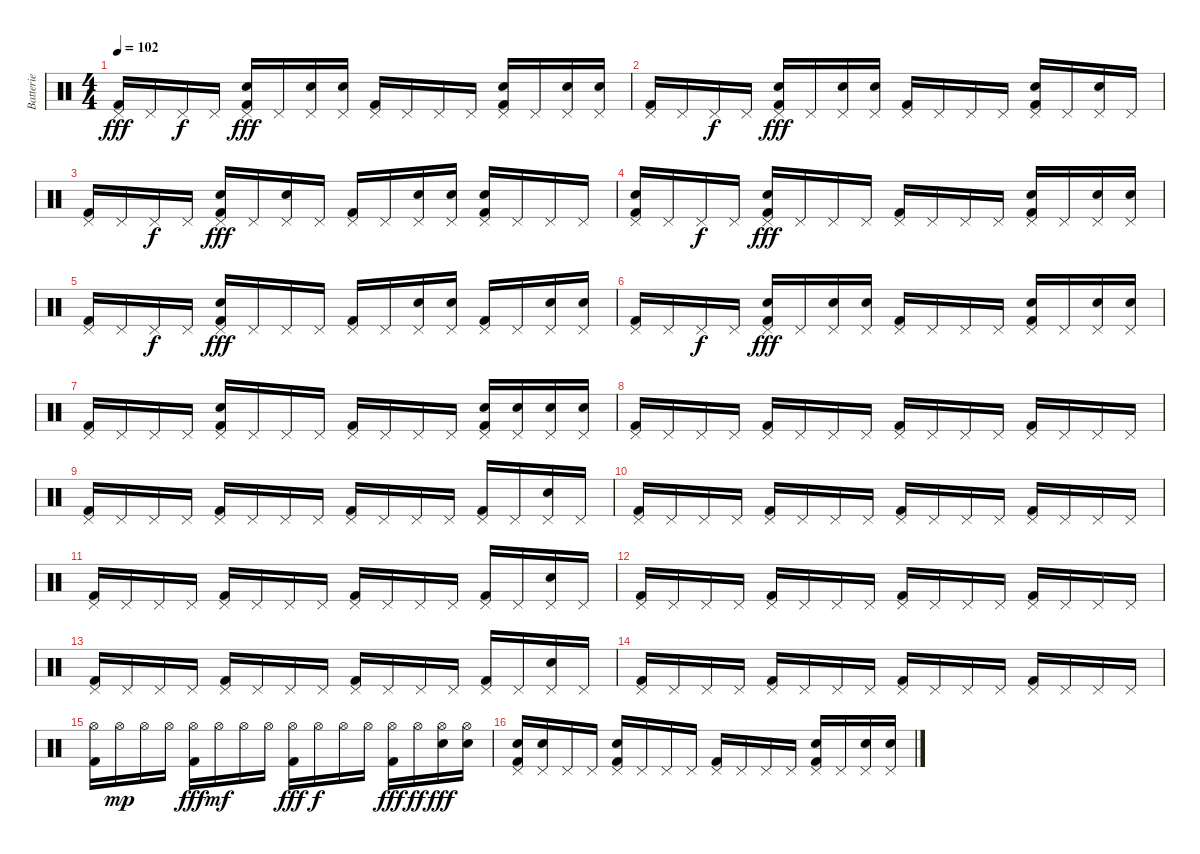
\track ("Batterie" "Batterie") {instrument percussion}
\staff {score}
\articulation defaults
\ts (4 4)
\tempo 102
\clef neutral
\ks c
("Pedal Hi-Hat (hit)" "Kick (hit) 2").16{dy fff} "Pedal Hi-Hat (hit)".16 "Pedal Hi-Hat (hit)".16{dy f} "Pedal Hi-Hat (hit)".16 ("Pedal Hi-Hat (hit)" "Electric Snare (hit)" "Kick (hit) 2").16{dy fff} "Pedal Hi-Hat (hit)".16 ("Pedal Hi-Hat (hit)" "Electric Snare (hit)").16 ("Pedal Hi-Hat (hit)" "Electric Snare (hit)").16 ("Pedal Hi-Hat (hit)" "Kick (hit) 2").16 "Pedal Hi-Hat (hit)".16 "Pedal Hi-Hat (hit)".16 "Pedal Hi-Hat (hit)".16 ("Pedal Hi-Hat (hit)" "Electric Snare (hit)" "Kick (hit) 2").16 "Pedal Hi-Hat (hit)".16 ("Pedal Hi-Hat (hit)" "Electric Snare (hit)").16 ("Pedal Hi-Hat (hit)" "Electric Snare (hit)").16 |
("Pedal Hi-Hat (hit)" "Kick (hit) 2").16 "Pedal Hi-Hat (hit)".16 "Pedal Hi-Hat (hit)".16{dy f} "Pedal Hi-Hat (hit)".16 ("Pedal Hi-Hat (hit)" "Electric Snare (hit)" "Kick (hit) 2").16{dy fff} "Pedal Hi-Hat (hit)".16 ("Pedal Hi-Hat (hit)" "Electric Snare (hit)").16 ("Pedal Hi-Hat (hit)" "Electric Snare (hit)").16 ("Pedal Hi-Hat (hit)" "Kick (hit) 2").16 "Pedal Hi-Hat (hit)".16 "Pedal Hi-Hat (hit)".16 "Pedal Hi-Hat (hit)".16 ("Pedal Hi-Hat (hit)" "Electric Snare (hit)" "Kick (hit) 2").16 "Pedal Hi-Hat (hit)".16 ("Pedal Hi-Hat (hit)" "Electric Snare (hit)").16 "Pedal Hi-Hat (hit)".16 |
("Pedal Hi-Hat (hit)" "Kick (hit) 2").16 "Pedal Hi-Hat (hit)".16 "Pedal Hi-Hat (hit)".16{dy f} "Pedal Hi-Hat (hit)".16 ("Pedal Hi-Hat (hit)" "Electric Snare (hit)" "Kick (hit) 2").16{dy fff} "Pedal Hi-Hat (hit)".16 ("Pedal Hi-Hat (hit)" "Electric Snare (hit)").16 "Pedal Hi-Hat (hit)".16 ("Pedal Hi-Hat (hit)" "Kick (hit) 2").16 "Pedal Hi-Hat (hit)".16 ("Pedal Hi-Hat (hit)" "Electric Snare (hit)").16 ("Pedal Hi-Hat (hit)" "Electric Snare (hit)").16 ("Pedal Hi-Hat (hit)" "Electric Snare (hit)" "Kick (hit) 2").16 "Pedal Hi-Hat (hit)".16 "Pedal Hi-Hat (hit)".16 "Pedal Hi-Hat (hit)".16 |
("Pedal Hi-Hat (hit)" "Electric Snare (hit)" "Kick (hit) 2").16 "Pedal Hi-Hat (hit)".16 "Pedal Hi-Hat (hit)".16{dy f} "Pedal Hi-Hat (hit)".16 ("Pedal Hi-Hat (hit)" "Electric Snare (hit)" "Kick (hit) 2").16{dy fff} "Pedal Hi-Hat (hit)".16 "Pedal Hi-Hat (hit)".16 "Pedal Hi-Hat (hit)".16 ("Pedal Hi-Hat (hit)" "Kick (hit) 2").16 "Pedal Hi-Hat (hit)".16 "Pedal Hi-Hat (hit)".16 "Pedal Hi-Hat (hit)".16 ("Pedal Hi-Hat (hit)" "Electric Snare (hit)" "Kick (hit) 2").16 "Pedal Hi-Hat (hit)".16 ("Pedal Hi-Hat (hit)" "Electric Snare (hit)").16 ("Pedal Hi-Hat (hit)" "Electric Snare (hit)").16 |
("Pedal Hi-Hat (hit)" "Kick (hit) 2").16 "Pedal Hi-Hat (hit)".16 "Pedal Hi-Hat (hit)".16{dy f} "Pedal Hi-Hat (hit)".16 ("Pedal Hi-Hat (hit)" "Electric Snare (hit)" "Kick (hit) 2").16{dy fff} "Pedal Hi-Hat (hit)".16 "Pedal Hi-Hat (hit)".16 "Pedal Hi-Hat (hit)".16 ("Pedal Hi-Hat (hit)" "Kick (hit) 2").16 "Pedal Hi-Hat (hit)".16 ("Pedal Hi-Hat (hit)" "Electric Snare (hit)").16 ("Pedal Hi-Hat (hit)" "Electric Snare (hit)").16 ("Pedal Hi-Hat (hit)" "Kick (hit) 2").16 "Pedal Hi-Hat (hit)".16 ("Pedal Hi-Hat (hit)" "Electric Snare (hit)").16 ("Pedal Hi-Hat (hit)" "Electric Snare (hit)").16 |
("Pedal Hi-Hat (hit)" "Kick (hit) 2").16 "Pedal Hi-Hat (hit)".16 "Pedal Hi-Hat (hit)".16{dy f} "Pedal Hi-Hat (hit)".16 ("Pedal Hi-Hat (hit)" "Electric Snare (hit)" "Kick (hit) 2").16{dy fff} "Pedal Hi-Hat (hit)".16 ("Pedal Hi-Hat (hit)" "Electric Snare (hit)").16 ("Pedal Hi-Hat (hit)" "Electric Snare (hit)").16 ("Pedal Hi-Hat (hit)" "Kick (hit) 2").16 "Pedal Hi-Hat (hit)".16 "Pedal Hi-Hat (hit)".16 "Pedal Hi-Hat (hit)".16 ("Pedal Hi-Hat (hit)" "Electric Snare (hit)" "Kick (hit) 2").16 "Pedal Hi-Hat (hit)".16 ("Pedal Hi-Hat (hit)" "Electric Snare (hit)").16 ("Pedal Hi-Hat (hit)" "Electric Snare (hit)").16 |
("Pedal Hi-Hat (hit)" "Kick (hit) 2").16 "Pedal Hi-Hat (hit)".16 "Pedal Hi-Hat (hit)".16 "Pedal Hi-Hat (hit)".16 ("Pedal Hi-Hat (hit)" "Electric Snare (hit)" "Kick (hit) 2").16 "Pedal Hi-Hat (hit)".16 "Pedal Hi-Hat (hit)".16 "Pedal Hi-Hat (hit)".16 ("Pedal Hi-Hat (hit)" "Kick (hit) 2").16 "Pedal Hi-Hat (hit)".16 "Pedal Hi-Hat (hit)".16 "Pedal Hi-Hat (hit)".16 ("Pedal Hi-Hat (hit)" "Electric Snare (hit)" "Kick (hit) 2").16 ("Pedal Hi-Hat (hit)" "Electric Snare (hit)").16 ("Pedal Hi-Hat (hit)" "Electric Snare (hit)").16 ("Pedal Hi-Hat (hit)" "Electric Snare (hit)").16 |
("Pedal Hi-Hat (hit)" "Kick (hit) 2").16 "Pedal Hi-Hat (hit)".16 "Pedal Hi-Hat (hit)".16 "Pedal Hi-Hat (hit)".16 ("Pedal Hi-Hat (hit)" "Kick (hit) 2").16 "Pedal Hi-Hat (hit)".16 "Pedal Hi-Hat (hit)".16 "Pedal Hi-Hat (hit)".16 ("Pedal Hi-Hat (hit)" "Kick (hit) 2").16 "Pedal Hi-Hat (hit)".16 "Pedal Hi-Hat (hit)".16 "Pedal Hi-Hat (hit)".16 ("Pedal Hi-Hat (hit)" "Kick (hit) 2").16 "Pedal Hi-Hat (hit)".16 "Pedal Hi-Hat (hit)".16 "Pedal Hi-Hat (hit)".16 |
("Pedal Hi-Hat (hit)" "Kick (hit) 2").16 "Pedal Hi-Hat (hit)".16 "Pedal Hi-Hat (hit)".16 "Pedal Hi-Hat (hit)".16 ("Pedal Hi-Hat (hit)" "Kick (hit) 2").16 "Pedal Hi-Hat (hit)".16 "Pedal Hi-Hat (hit)".16 "Pedal Hi-Hat (hit)".16 ("Pedal Hi-Hat (hit)" "Kick (hit) 2").16 "Pedal Hi-Hat (hit)".16 "Pedal Hi-Hat (hit)".16 "Pedal Hi-Hat (hit)".16 ("Pedal Hi-Hat (hit)" "Kick (hit) 2").16 "Pedal Hi-Hat (hit)".16 ("Pedal Hi-Hat (hit)" "Electric Snare (hit)").16 "Pedal Hi-Hat (hit)".16 |
("Pedal Hi-Hat (hit)" "Kick (hit) 2").16 "Pedal Hi-Hat (hit)".16 "Pedal Hi-Hat (hit)".16 "Pedal Hi-Hat (hit)".16 ("Pedal Hi-Hat (hit)" "Kick (hit) 2").16 "Pedal Hi-Hat (hit)".16 "Pedal Hi-Hat (hit)".16 "Pedal Hi-Hat (hit)".16 ("Pedal Hi-Hat (hit)" "Kick (hit) 2").16 "Pedal Hi-Hat (hit)".16 "Pedal Hi-Hat (hit)".16 "Pedal Hi-Hat (hit)".16 ("Pedal Hi-Hat (hit)" "Kick (hit) 2").16 "Pedal Hi-Hat (hit)".16 "Pedal Hi-Hat (hit)".16 "Pedal Hi-Hat (hit)".16 |
("Pedal Hi-Hat (hit)" "Kick (hit) 2").16 "Pedal Hi-Hat (hit)".16 "Pedal Hi-Hat (hit)".16 "Pedal Hi-Hat (hit)".16 ("Pedal Hi-Hat (hit)" "Kick (hit) 2").16 "Pedal Hi-Hat (hit)".16 "Pedal Hi-Hat (hit)".16 "Pedal Hi-Hat (hit)".16 ("Pedal Hi-Hat (hit)" "Kick (hit) 2").16 "Pedal Hi-Hat (hit)".16 "Pedal Hi-Hat (hit)".16 "Pedal Hi-Hat (hit)".16 ("Pedal Hi-Hat (hit)" "Kick (hit) 2").16 "Pedal Hi-Hat (hit)".16 ("Pedal Hi-Hat (hit)" "Electric Snare (hit)").16 "Pedal Hi-Hat (hit)".16 |
("Pedal Hi-Hat (hit)" "Kick (hit) 2").16 "Pedal Hi-Hat (hit)".16 "Pedal Hi-Hat (hit)".16 "Pedal Hi-Hat (hit)".16 ("Pedal Hi-Hat (hit)" "Kick (hit) 2").16 "Pedal Hi-Hat (hit)".16 "Pedal Hi-Hat (hit)".16 "Pedal Hi-Hat (hit)".16 ("Pedal Hi-Hat (hit)" "Kick (hit) 2").16 "Pedal Hi-Hat (hit)".16 "Pedal Hi-Hat (hit)".16 "Pedal Hi-Hat (hit)".16 ("Pedal Hi-Hat (hit)" "Kick (hit) 2").16 "Pedal Hi-Hat (hit)".16 "Pedal Hi-Hat (hit)".16 "Pedal Hi-Hat (hit)".16 |
("Pedal Hi-Hat (hit)" "Kick (hit) 2").16 "Pedal Hi-Hat (hit)".16 "Pedal Hi-Hat (hit)".16 "Pedal Hi-Hat (hit)".16 ("Pedal Hi-Hat (hit)" "Kick (hit) 2").16 "Pedal Hi-Hat (hit)".16 "Pedal Hi-Hat (hit)".16 "Pedal Hi-Hat (hit)".16 ("Pedal Hi-Hat (hit)" "Kick (hit) 2").16 "Pedal Hi-Hat (hit)".16 "Pedal Hi-Hat (hit)".16 "Pedal Hi-Hat (hit)".16 ("Pedal Hi-Hat (hit)" "Kick (hit) 2").16 "Pedal Hi-Hat (hit)".16 ("Pedal Hi-Hat (hit)" "Electric Snare (hit)").16 "Pedal Hi-Hat (hit)".16 |
("Pedal Hi-Hat (hit)" "Kick (hit) 2").16 "Pedal Hi-Hat (hit)".16 "Pedal Hi-Hat (hit)".16 "Pedal Hi-Hat (hit)".16 ("Pedal Hi-Hat (hit)" "Kick (hit) 2").16 "Pedal Hi-Hat (hit)".16 "Pedal Hi-Hat (hit)".16 "Pedal Hi-Hat (hit)".16 ("Pedal Hi-Hat (hit)" "Kick (hit) 2").16 "Pedal Hi-Hat (hit)".16 "Pedal Hi-Hat (hit)".16 "Pedal Hi-Hat (hit)".16 ("Pedal Hi-Hat (hit)" "Kick (hit) 2").16 "Pedal Hi-Hat (hit)".16 "Pedal Hi-Hat (hit)".16 "Pedal Hi-Hat (hit)".16 |
("Hi-Hat (open)" "Kick (hit) 2").16 "Hi-Hat (open)".16{dy mp} "Hi-Hat (open)".16 "Hi-Hat (open)".16 ("Hi-Hat (open)" "Kick (hit) 2").16{dy fff} "Hi-Hat (open)".16{dy mf} "Hi-Hat (open)".16 "Hi-Hat (open)".16 ("Hi-Hat (open)" "Kick (hit) 2").16{dy fff} "Hi-Hat (open)".16{dy f} "Hi-Hat (open)".16 "Hi-Hat (open)".16 ("Hi-Hat (open)" "Kick (hit) 2").16{dy fff} "Hi-Hat (open)".16{dy ff} ("Hi-Hat (open)" "Electric Snare (hit)").16{dy fff} ("Hi-Hat (open)" "Electric Snare (hit)").16 |
("Pedal Hi-Hat (hit)" "Electric Snare (hit)" "Kick (hit) 2").16 ("Pedal Hi-Hat (hit)" "Electric Snare (hit)").16 "Pedal Hi-Hat (hit)".16 "Pedal Hi-Hat (hit)".16 ("Pedal Hi-Hat (hit)" "Electric Snare (hit)" "Kick (hit) 2").16 "Pedal Hi-Hat (hit)".16 "Pedal Hi-Hat (hit)".16 "Pedal Hi-Hat (hit)".16 ("Pedal Hi-Hat (hit)" "Kick (hit) 2").16 "Pedal Hi-Hat (hit)".16 "Pedal Hi-Hat (hit)".16 "Pedal Hi-Hat (hit)".16 ("Pedal Hi-Hat (hit)" "Electric Snare (hit)" "Kick (hit) 2").16 "Pedal Hi-Hat (hit)".16 ("Pedal Hi-Hat (hit)" "Electric Snare (hit)").16 ("Pedal Hi-Hat (hit)" "Electric Snare (hit)").16
